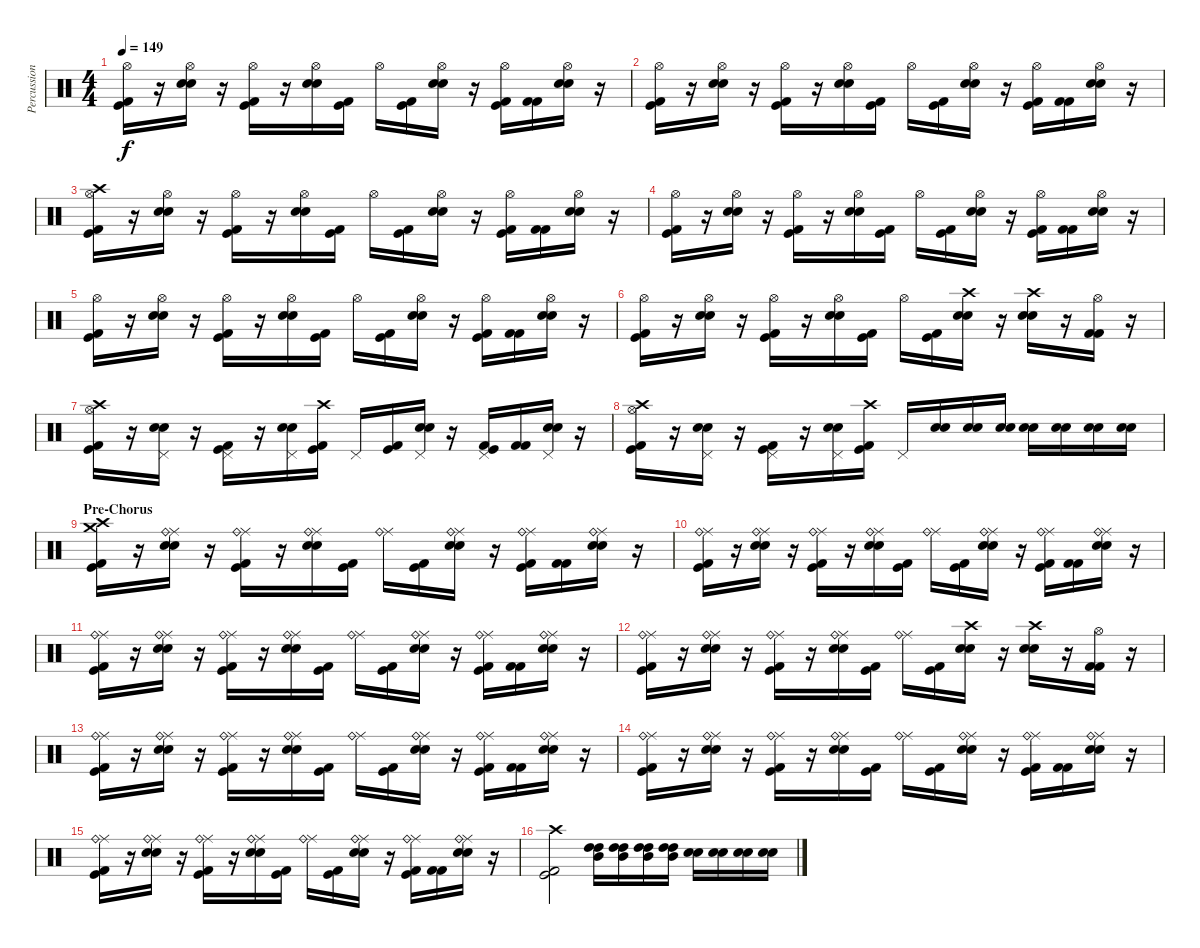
\track ("Percussioni" "Percussion") {instrument percussion}
\staff {score}
\articulation defaults
\ts (4 4)
\tempo 149
\clef neutral
\ks c
("Hi-Hat (open)" "Kick (hit) 2" "Kick (hit)").16{dy f} r.16 ("Hi-Hat (open)" "Snare (hit) 2" "Snare (hit) 2").16 r.16 ("Hi-Hat (open)" "Kick (hit)" "Kick (hit) 2").16 r.16 ("Hi-Hat (open)" "Snare (hit) 2" "Snare (hit) 2").16 ("Kick (hit)" "Kick (hit) 2").16 "Hi-Hat (open)".16 ("Kick (hit) 2" "Kick (hit)").16 ("Hi-Hat (open)" "Snare (hit) 2" "Snare (hit) 2").16 r.16 ("Hi-Hat (open)" "Kick (hit)" "Kick (hit) 2").16 ("Kick (hit) 2" "Kick (hit) 2").16 ("Hi-Hat (open)" "Snare (hit) 2" "Snare (hit) 2").16 r.16 |
("Hi-Hat (open)" "Kick (hit) 2" "Kick (hit)").16 r.16 ("Hi-Hat (open)" "Snare (hit) 2" "Snare (hit) 2").16 r.16 ("Hi-Hat (open)" "Kick (hit)" "Kick (hit) 2").16 r.16 ("Hi-Hat (open)" "Snare (hit) 2" "Snare (hit) 2").16 ("Kick (hit)" "Kick (hit) 2").16 "Hi-Hat (open)".16 ("Kick (hit) 2" "Kick (hit)").16 ("Hi-Hat (open)" "Snare (hit) 2" "Snare (hit) 2").16 r.16 ("Hi-Hat (open)" "Kick (hit)" "Kick (hit) 2").16 ("Kick (hit) 2" "Kick (hit) 2").16 ("Hi-Hat (open)" "Snare (hit) 2" "Snare (hit) 2").16 r.16 |
("Hi-Hat (open)" "Crash high (hit)" "Kick (hit) 2" "Kick (hit)").16 r.16 ("Hi-Hat (open)" "Snare (hit) 2" "Snare (hit) 2").16 r.16 ("Hi-Hat (open)" "Kick (hit)" "Kick (hit) 2").16 r.16 ("Hi-Hat (open)" "Snare (hit) 2" "Snare (hit) 2").16 ("Kick (hit)" "Kick (hit) 2").16 "Hi-Hat (open)".16 ("Kick (hit) 2" "Kick (hit)").16 ("Hi-Hat (open)" "Snare (hit) 2" "Snare (hit) 2").16 r.16 ("Hi-Hat (open)" "Kick (hit)" "Kick (hit) 2").16 ("Kick (hit) 2" "Kick (hit) 2").16 ("Hi-Hat (open)" "Snare (hit) 2" "Snare (hit) 2").16 r.16 |
("Hi-Hat (open)" "Kick (hit) 2" "Kick (hit)").16 r.16 ("Hi-Hat (open)" "Snare (hit) 2" "Snare (hit) 2").16 r.16 ("Hi-Hat (open)" "Kick (hit)" "Kick (hit) 2").16 r.16 ("Hi-Hat (open)" "Snare (hit) 2" "Snare (hit) 2").16 ("Kick (hit)" "Kick (hit) 2").16 "Hi-Hat (open)".16 ("Kick (hit) 2" "Kick (hit)").16 ("Hi-Hat (open)" "Snare (hit) 2" "Snare (hit) 2").16 r.16 ("Hi-Hat (open)" "Kick (hit)" "Kick (hit) 2").16 ("Kick (hit) 2" "Kick (hit) 2").16 ("Hi-Hat (open)" "Snare (hit) 2" "Snare (hit) 2").16 r.16 |
("Hi-Hat (open)" "Kick (hit) 2" "Kick (hit)").16 r.16 ("Hi-Hat (open)" "Snare (hit) 2" "Snare (hit) 2").16 r.16 ("Hi-Hat (open)" "Kick (hit)" "Kick (hit) 2").16 r.16 ("Hi-Hat (open)" "Snare (hit) 2" "Snare (hit) 2").16 ("Kick (hit)" "Kick (hit) 2").16 "Hi-Hat (open)".16 ("Kick (hit) 2" "Kick (hit)").16 ("Hi-Hat (open)" "Snare (hit) 2" "Snare (hit) 2").16 r.16 ("Hi-Hat (open)" "Kick (hit)" "Kick (hit) 2").16 ("Kick (hit) 2" "Kick (hit) 2").16 ("Hi-Hat (open)" "Snare (hit) 2" "Snare (hit) 2").16 r.16 |
("Hi-Hat (open)" "Kick (hit) 2" "Kick (hit)").16 r.16 ("Hi-Hat (open)" "Snare (hit) 2" "Snare (hit) 2").16 r.16 ("Hi-Hat (open)" "Kick (hit)" "Kick (hit) 2").16 r.16 ("Hi-Hat (open)" "Snare (hit) 2" "Snare (hit) 2").16 ("Kick (hit)" "Kick (hit) 2").16 "Hi-Hat (open)".16 ("Kick (hit) 2" "Kick (hit)").16 ("Crash high (hit)" "Snare (hit) 2" "Snare (hit) 2").16 r.16 ("Crash high (hit)" "Snare (hit) 2" "Snare (hit) 2").16 r.16 ("Hi-Hat (open)" "Kick (hit) 2" "Kick (hit) 2").16 r.16 |
("Hi-Hat (open)" "Crash high (hit)" "Kick (hit) 2" "Kick (hit)").16 r.16 ("Pedal Hi-Hat (hit)" "Snare (hit) 2" "Snare (hit) 2").16 r.16 ("Pedal Hi-Hat (hit)" "Kick (hit)" "Kick (hit) 2").16 r.16 ("Pedal Hi-Hat (hit)" "Snare (hit) 2" "Snare (hit) 2").16 ("Crash high (hit)" "Kick (hit)" "Kick (hit) 2").16 "Pedal Hi-Hat (hit)".16 ("Kick (hit) 2" "Kick (hit)").16 ("Pedal Hi-Hat (hit)" "Snare (hit) 2" "Snare (hit) 2").16 r.16 ("Pedal Hi-Hat (hit)" "Kick (hit)" "Kick (hit) 2").16 ("Kick (hit) 2" "Kick (hit) 2").16 ("Pedal Hi-Hat (hit)" "Snare (hit) 2" "Snare (hit) 2").16 r.16 |
("Hi-Hat (open)" "Crash high (hit)" "Kick (hit) 2" "Kick (hit)").16 r.16 ("Pedal Hi-Hat (hit)" "Snare (hit) 2" "Snare (hit) 2").16 r.16 ("Pedal Hi-Hat (hit)" "Kick (hit)" "Kick (hit) 2").16 r.16 ("Pedal Hi-Hat (hit)" "Snare (hit) 2" "Snare (hit) 2").16 ("Crash high (hit)" "Kick (hit)" "Kick (hit) 2").16 "Pedal Hi-Hat (hit)".16 ("Snare (hit) 2" "Snare (hit) 2").16 ("Snare (hit) 2" "Snare (hit) 2").16 ("Snare (hit) 2" "Snare (hit) 2").16 ("Snare (hit) 2" "Snare (hit) 2").16 ("Snare (hit) 2" "Snare (hit) 2").16 ("Snare (hit) 2" "Snare (hit) 2").16 ("Snare (hit) 2" "Snare (hit) 2").16 |
\section ("" "Pre-Chorus")
("Crash high (hit)" "Crash medium (hit)" "Kick (hit) 2" "Kick (hit)").16 r.16 ("Ride (middle)" "Ride (bell)" "Snare (hit) 2" "Snare (hit) 2").16 r.16 ("Ride (middle)" "Ride (bell)" "Kick (hit)" "Kick (hit) 2").16 r.16 ("Ride (middle)" "Ride (bell)" "Snare (hit) 2" "Snare (hit) 2").16 ("Kick (hit)" "Kick (hit) 2").16 ("Ride (middle)" "Ride (bell)").16 ("Kick (hit) 2" "Kick (hit)").16 ("Ride (middle)" "Ride (bell)" "Snare (hit) 2" "Snare (hit) 2").16 r.16 ("Ride (middle)" "Ride (bell)" "Kick (hit)" "Kick (hit) 2").16 ("Kick (hit) 2" "Kick (hit) 2").16 ("Ride (middle)" "Ride (bell)" "Snare (hit) 2" "Snare (hit) 2").16 r.16 |
("Ride (middle)" "Ride (bell)" "Kick (hit) 2" "Kick (hit)").16 r.16 ("Ride (middle)" "Ride (bell)" "Snare (hit) 2" "Snare (hit) 2").16 r.16 ("Ride (middle)" "Ride (bell)" "Kick (hit)" "Kick (hit) 2").16 r.16 ("Ride (middle)" "Ride (bell)" "Snare (hit) 2" "Snare (hit) 2").16 ("Kick (hit)" "Kick (hit) 2").16 ("Ride (middle)" "Ride (bell)").16 ("Kick (hit) 2" "Kick (hit)").16 ("Ride (middle)" "Ride (bell)" "Snare (hit) 2" "Snare (hit) 2").16 r.16 ("Ride (middle)" "Ride (bell)" "Kick (hit)" "Kick (hit) 2").16 ("Kick (hit) 2" "Kick (hit) 2").16 ("Ride (middle)" "Ride (bell)" "Snare (hit) 2" "Snare (hit) 2").16 r.16 |
("Ride (middle)" "Ride (bell)" "Kick (hit) 2" "Kick (hit)").16 r.16 ("Ride (middle)" "Ride (bell)" "Snare (hit) 2" "Snare (hit) 2").16 r.16 ("Ride (middle)" "Ride (bell)" "Kick (hit)" "Kick (hit) 2").16 r.16 ("Ride (middle)" "Ride (bell)" "Snare (hit) 2" "Snare (hit) 2").16 ("Kick (hit)" "Kick (hit) 2").16 ("Ride (middle)" "Ride (bell)").16 ("Kick (hit) 2" "Kick (hit)").16 ("Ride (middle)" "Ride (bell)" "Snare (hit) 2" "Snare (hit) 2").16 r.16 ("Ride (middle)" "Ride (bell)" "Kick (hit)" "Kick (hit) 2").16 ("Kick (hit) 2" "Kick (hit) 2").16 ("Ride (middle)" "Ride (bell)" "Snare (hit) 2" "Snare (hit) 2").16 r.16 |
("Ride (middle)" "Ride (bell)" "Kick (hit) 2" "Kick (hit)").16 r.16 ("Ride (middle)" "Ride (bell)" "Snare (hit) 2" "Snare (hit) 2").16 r.16 ("Ride (middle)" "Ride (bell)" "Kick (hit)" "Kick (hit) 2").16 r.16 ("Ride (middle)" "Ride (bell)" "Snare (hit) 2" "Snare (hit) 2").16 ("Kick (hit)" "Kick (hit) 2").16 ("Ride (middle)" "Ride (bell)").16 ("Kick (hit) 2" "Kick (hit)").16 ("Crash high (hit)" "Snare (hit) 2" "Snare (hit) 2").16 r.16 ("Crash high (hit)" "Snare (hit) 2" "Snare (hit) 2").16 r.16 ("Hi-Hat (open)" "Kick (hit) 2" "Kick (hit) 2").16 r.16 |
("Ride (middle)" "Ride (bell)" "Kick (hit) 2" "Kick (hit)").16 r.16 ("Ride (middle)" "Ride (bell)" "Snare (hit) 2" "Snare (hit) 2").16 r.16 ("Ride (middle)" "Ride (bell)" "Kick (hit)" "Kick (hit) 2").16 r.16 ("Ride (middle)" "Ride (bell)" "Snare (hit) 2" "Snare (hit) 2").16 ("Kick (hit)" "Kick (hit) 2").16 ("Ride (middle)" "Ride (bell)").16 ("Kick (hit) 2" "Kick (hit)").16 ("Ride (middle)" "Ride (bell)" "Snare (hit) 2" "Snare (hit) 2").16 r.16 ("Ride (middle)" "Ride (bell)" "Kick (hit)" "Kick (hit) 2").16 ("Kick (hit) 2" "Kick (hit) 2").16 ("Ride (middle)" "Ride (bell)" "Snare (hit) 2" "Snare (hit) 2").16 r.16 |
("Ride (middle)" "Ride (bell)" "Kick (hit) 2" "Kick (hit)").16 r.16 ("Ride (middle)" "Ride (bell)" "Snare (hit) 2" "Snare (hit) 2").16 r.16 ("Ride (middle)" "Ride (bell)" "Kick (hit)" "Kick (hit) 2").16 r.16 ("Ride (middle)" "Ride (bell)" "Snare (hit) 2" "Snare (hit) 2").16 ("Kick (hit)" "Kick (hit) 2").16 ("Ride (middle)" "Ride (bell)").16 ("Kick (hit) 2" "Kick (hit)").16 ("Ride (middle)" "Ride (bell)" "Snare (hit) 2" "Snare (hit) 2").16 r.16 ("Ride (middle)" "Ride (bell)" "Kick (hit)" "Kick (hit) 2").16 ("Kick (hit) 2" "Kick (hit) 2").16 ("Ride (middle)" "Ride (bell)" "Snare (hit) 2" "Snare (hit) 2").16 r.16 |
("Ride (middle)" "Ride (bell)" "Kick (hit) 2" "Kick (hit)").16 r.16 ("Ride (middle)" "Ride (bell)" "Snare (hit) 2" "Snare (hit) 2").16 r.16 ("Ride (middle)" "Ride (bell)" "Kick (hit)" "Kick (hit) 2").16 r.16 ("Ride (middle)" "Ride (bell)" "Snare (hit) 2" "Snare (hit) 2").16 ("Kick (hit)" "Kick (hit) 2").16 ("Ride (middle)" "Ride (bell)").16 ("Kick (hit) 2" "Kick (hit)").16 ("Ride (middle)" "Ride (bell)" "Snare (hit) 2" "Snare (hit) 2").16 r.16 ("Ride (middle)" "Ride (bell)" "Kick (hit)" "Kick (hit) 2").16 ("Kick (hit) 2" "Kick (hit) 2").16 ("Ride (middle)" "Ride (bell)" "Snare (hit) 2" "Snare (hit) 2").16 r.16 |
("Crash high (hit)" "Kick (hit) 2" "Kick (hit)").2 ("Mid Tom (hit)" "High Tom (hit)" "High Tom (hit)").16 ("Mid Tom (hit)" "High Tom (hit)" "High Tom (hit)").16 ("Mid Tom (hit)" "High Tom (hit)" "High Tom (hit)").16 ("Mid Tom (hit)" "High Tom (hit)" "High Tom (hit)").16 ("Snare (hit) 2" "Snare (hit) 2").16 ("Snare (hit) 2" "Snare (hit) 2").16 ("Snare (hit) 2" "Snare (hit) 2").16 ("Snare (hit) 2" "Snare (hit) 2").16
